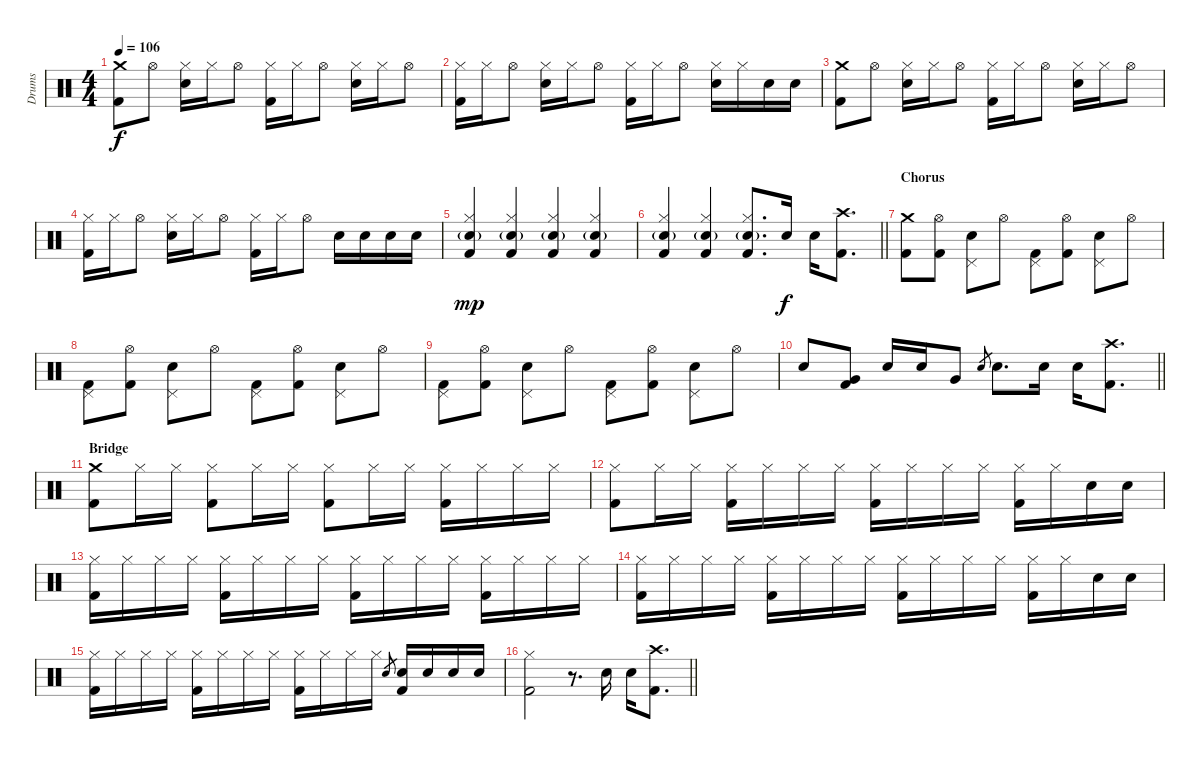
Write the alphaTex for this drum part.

\track ("Drums" "Drums") {instrument percussion}
\staff {score}
\articulation defaults
\ts (4 4)
\tempo 106
\clef neutral
\ks c
("Crash medium (hit)" "Kick (hit) 2").8{dy f} "Hi-Hat (open)".8 ("Hi-Hat (closed)" "Electric Snare (hit)").16 "Hi-Hat (closed)".16 "Hi-Hat (open)".8 ("Hi-Hat (closed)" "Kick (hit) 2").16 "Hi-Hat (closed)".16 "Hi-Hat (open)".8 ("Hi-Hat (closed)" "Electric Snare (hit)").16 "Hi-Hat (closed)".16 "Hi-Hat (open)".8 |
("Hi-Hat (closed)" "Kick (hit) 2").16 "Hi-Hat (closed)".16 "Hi-Hat (open)".8 ("Hi-Hat (closed)" "Electric Snare (hit)").16 "Hi-Hat (closed)".16 "Hi-Hat (open)".8 ("Hi-Hat (closed)" "Kick (hit) 2").16 "Hi-Hat (closed)".16 "Hi-Hat (open)".8 ("Hi-Hat (closed)" "Electric Snare (hit)").16 "Hi-Hat (closed)".16 "Electric Snare (hit)".16 "Electric Snare (hit)".16 |
("Crash medium (hit)" "Kick (hit) 2").8 "Hi-Hat (open)".8 ("Hi-Hat (closed)" "Electric Snare (hit)").16 "Hi-Hat (closed)".16 "Hi-Hat (open)".8 ("Hi-Hat (closed)" "Kick (hit) 2").16 "Hi-Hat (closed)".16 "Hi-Hat (open)".8 ("Hi-Hat (closed)" "Electric Snare (hit)").16 "Hi-Hat (closed)".16 "Hi-Hat (open)".8 |
("Hi-Hat (closed)" "Kick (hit) 2").16 "Hi-Hat (closed)".16 "Hi-Hat (open)".8 ("Hi-Hat (closed)" "Electric Snare (hit)").16 "Hi-Hat (closed)".16 "Hi-Hat (open)".8 ("Hi-Hat (closed)" "Kick (hit) 2").16 "Hi-Hat (closed)".16 "Hi-Hat (open)".8 "Electric Snare (hit)".16 "Electric Snare (hit)".16 "Electric Snare (hit)".16 "Electric Snare (hit)".16 |
("Hi-Hat (closed)" "Electric Snare (hit)"{g} "Kick (hit) 2").4{dy mp} ("Hi-Hat (closed)" "Electric Snare (hit)"{g} "Kick (hit) 2").4 ("Hi-Hat (closed)" "Electric Snare (hit)"{g} "Kick (hit) 2").4 ("Hi-Hat (closed)" "Electric Snare (hit)"{g} "Kick (hit) 2").4 |
\barLineRight lightlight
("Hi-Hat (closed)" "Electric Snare (hit)"{g} "Kick (hit) 2").4 ("Hi-Hat (closed)" "Electric Snare (hit)"{g} "Kick (hit) 2").4 ("Hi-Hat (closed)" "Electric Snare (hit)"{g} "Kick (hit) 2").8{d} "Electric Snare (hit)".16{dy f} "Electric Snare (hit)".16 ("Crash high (hit)" "Kick (hit) 2").8{d} |
\section ("" "Chorus")
("Crash medium (hit)" "Kick (hit) 2").8 ("Hi-Hat (open)" "Kick (hit) 2").8 ("Pedal Hi-Hat (hit)" "Electric Snare (hit)").8 "Hi-Hat (open)".8 ("Pedal Hi-Hat (hit)" "Kick (hit) 2").8 ("Hi-Hat (open)" "Kick (hit) 2").8 ("Pedal Hi-Hat (hit)" "Electric Snare (hit)").8 "Hi-Hat (open)".8 |
("Pedal Hi-Hat (hit)" "Kick (hit) 2").8 ("Hi-Hat (open)" "Kick (hit) 2").8 ("Pedal Hi-Hat (hit)" "Electric Snare (hit)").8 "Hi-Hat (open)".8 ("Pedal Hi-Hat (hit)" "Kick (hit) 2").8 ("Hi-Hat (open)" "Kick (hit) 2").8 ("Pedal Hi-Hat (hit)" "Electric Snare (hit)").8 "Hi-Hat (open)".8 |
("Pedal Hi-Hat (hit)" "Kick (hit) 2").8 ("Hi-Hat (open)" "Kick (hit) 2").8 ("Pedal Hi-Hat (hit)" "Electric Snare (hit)").8 "Hi-Hat (open)".8 ("Pedal Hi-Hat (hit)" "Kick (hit) 2").8 ("Hi-Hat (open)" "Kick (hit) 2").8 ("Pedal Hi-Hat (hit)" "Electric Snare (hit)").8 "Hi-Hat (open)".8 |
\barLineRight lightlight "Electric Snare (hit)".8
("Very Low Tom (hit)" "Kick (hit) 2").8 "Electric Snare (hit)".16 "Electric Snare (hit)".16 "Very Low Tom (hit)".8 "Electric Snare (hit)".8{gr} "Electric Snare (hit)".8{d} "Electric Snare (hit)".16 "Electric Snare (hit)".16 ("Crash high (hit)" "Kick (hit) 2").8{d} |
\section ("" "Bridge")
("Crash medium (hit)" "Kick (hit) 2").8 "Hi-Hat (closed)".16 "Hi-Hat (closed)".16 ("Hi-Hat (closed)" "Kick (hit) 2").8 "Hi-Hat (closed)".16 "Hi-Hat (closed)".16 ("Hi-Hat (closed)" "Kick (hit) 2").8 "Hi-Hat (closed)".16 "Hi-Hat (closed)".16 ("Hi-Hat (closed)" "Kick (hit) 2").16 "Hi-Hat (closed)".16 "Hi-Hat (closed)".16 "Hi-Hat (closed)".16 |
("Hi-Hat (closed)" "Kick (hit) 2").8 "Hi-Hat (closed)".16 "Hi-Hat (closed)".16 ("Hi-Hat (closed)" "Kick (hit) 2").16 "Hi-Hat (closed)".16 "Hi-Hat (closed)".16 "Hi-Hat (closed)".16 ("Hi-Hat (closed)" "Kick (hit) 2").16 "Hi-Hat (closed)".16 "Hi-Hat (closed)".16 "Hi-Hat (closed)".16 ("Hi-Hat (closed)" "Kick (hit) 2").16 "Hi-Hat (closed)".16 "Electric Snare (hit)".16 "Electric Snare (hit)".16 |
("Hi-Hat (closed)" "Kick (hit) 2").16 "Hi-Hat (closed)".16 "Hi-Hat (closed)".16 "Hi-Hat (closed)".16 ("Hi-Hat (closed)" "Kick (hit) 2").16 "Hi-Hat (closed)".16 "Hi-Hat (closed)".16 "Hi-Hat (closed)".16 ("Hi-Hat (closed)" "Kick (hit) 2").16 "Hi-Hat (closed)".16 "Hi-Hat (closed)".16 "Hi-Hat (closed)".16 ("Hi-Hat (closed)" "Kick (hit) 2").16 "Hi-Hat (closed)".16 "Hi-Hat (closed)".16 "Hi-Hat (closed)".16 |
("Hi-Hat (closed)" "Kick (hit) 2").16 "Hi-Hat (closed)".16 "Hi-Hat (closed)".16 "Hi-Hat (closed)".16 ("Hi-Hat (closed)" "Kick (hit) 2").16 "Hi-Hat (closed)".16 "Hi-Hat (closed)".16 "Hi-Hat (closed)".16 ("Hi-Hat (closed)" "Kick (hit) 2").16 "Hi-Hat (closed)".16 "Hi-Hat (closed)".16 "Hi-Hat (closed)".16 ("Hi-Hat (closed)" "Kick (hit) 2").16 "Hi-Hat (closed)".16 "Electric Snare (hit)".16 "Electric Snare (hit)".16 |
("Hi-Hat (closed)" "Kick (hit) 2").16 "Hi-Hat (closed)".16 "Hi-Hat (closed)".16 "Hi-Hat (closed)".16 ("Hi-Hat (closed)" "Kick (hit) 2").16 "Hi-Hat (closed)".16 "Hi-Hat (closed)".16 "Hi-Hat (closed)".16 ("Hi-Hat (closed)" "Kick (hit) 2").16 "Hi-Hat (closed)".16 "Hi-Hat (closed)".16 "Hi-Hat (closed)".16 "Electric Snare (hit)".8{gr} ("Electric Snare (hit)" "Kick (hit) 2").16 "Electric Snare (hit)".16 "Electric Snare (hit)".16 "Electric Snare (hit)".16 |
\barLineRight lightlight
("Hi-Hat (closed)" "Kick (hit) 2").2 r.8{d} "Electric Snare (hit)".16 "Electric Snare (hit)".16 ("Crash high (hit)" "Kick (hit) 2").8{d}
